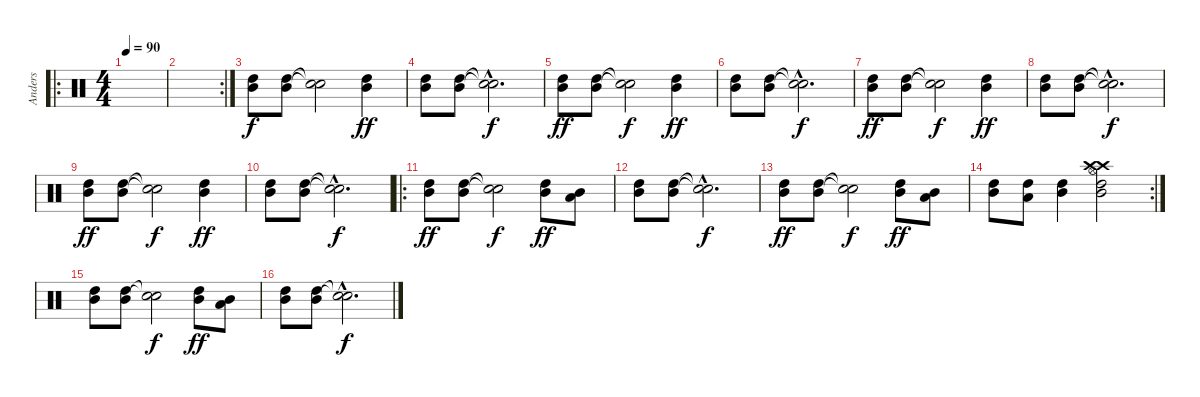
\track ("Anders" "Anders") {instrument percussion}
\staff {score}
\articulation defaults
\ro
\ts (4 4)
\tempo 90
\clef neutral
\ks c
|
\rc 2
|
("Mid Tom (hit)" "High Tom (hit)").8 ("Mid Tom (hit)" "High Tom (hit)").8 ("Snare (hit)"{t} "Snare (hit)"{t}).2{dy f} ("Mid Tom (hit)" "High Tom (hit)").4{dy ff} |
("Mid Tom (hit)" "High Tom (hit)").8 ("Mid Tom (hit)" "High Tom (hit)").8 ("Snare (hit)"{hac t} "Snare (hit)"{hac t}).2{d dy f} |
("Mid Tom (hit)" "High Tom (hit)").8{dy ff} ("Mid Tom (hit)" "High Tom (hit)").8 ("Snare (hit)"{t} "Snare (hit)"{t}).2{dy f} ("Mid Tom (hit)" "High Tom (hit)").4{dy ff} |
("Mid Tom (hit)" "High Tom (hit)").8 ("Mid Tom (hit)" "High Tom (hit)").8 ("Snare (hit)"{hac t} "Snare (hit)"{hac t}).2{d dy f} |
("Mid Tom (hit)" "High Tom (hit)").8{dy ff} ("Mid Tom (hit)" "High Tom (hit)").8 ("Snare (hit)"{t} "Snare (hit)"{t}).2{dy f} ("Mid Tom (hit)" "High Tom (hit)").4{dy ff} |
("Mid Tom (hit)" "High Tom (hit)").8 ("Mid Tom (hit)" "High Tom (hit)").8 ("Snare (hit)"{hac t} "Snare (hit)"{hac t}).2{d dy f} |
("Mid Tom (hit)" "High Tom (hit)").8{dy ff} ("Mid Tom (hit)" "High Tom (hit)").8 ("Snare (hit)"{t} "Snare (hit)"{t}).2{dy f} ("Mid Tom (hit)" "High Tom (hit)").4{dy ff} |
("Mid Tom (hit)" "High Tom (hit)").8 ("Mid Tom (hit)" "High Tom (hit)").8 ("Snare (hit)"{hac t} "Snare (hit)"{hac t}).2{d dy f} |
\ro
("Mid Tom (hit)" "High Tom (hit)").8{dy ff} ("Mid Tom (hit)" "High Tom (hit)").8 ("Snare (hit)"{t} "Snare (hit)"{t}).2{dy f} ("Mid Tom (hit)" "High Tom (hit)").8{dy ff} ("Mid Tom (hit)" "Low Tom (hit)").8 |
("Mid Tom (hit)" "High Tom (hit)").8 ("Mid Tom (hit)" "High Tom (hit)").8 ("Snare (hit)"{hac t} "Snare (hit)"{hac t}).2{d dy f} |
("Mid Tom (hit)" "High Tom (hit)").8{dy ff} ("Mid Tom (hit)" "High Tom (hit)").8 ("Snare (hit)"{t} "Snare (hit)"{t}).2{dy f} ("Mid Tom (hit)" "High Tom (hit)").8{dy ff} ("Mid Tom (hit)" "Low Tom (hit)").8 |
\rc 2
("High Tom (hit)" "Mid Tom (hit)").8 ("High Tom (hit)" "Low Tom (hit)").8 ("High Tom (hit)" "Mid Tom (hit)").4 ("Crash high (hit)" "Crash high (hit)" "High Tom (hit)" "Mid Tom (hit)" "Hi-Hat (open)").2 |
("Mid Tom (hit)" "High Tom (hit)").8 ("Mid Tom (hit)" "High Tom (hit)").8 ("Snare (hit)"{t} "Snare (hit)"{t}).2{dy f} ("Mid Tom (hit)" "High Tom (hit)").8{dy ff} ("Mid Tom (hit)" "Low Tom (hit)").8 |
("Mid Tom (hit)" "High Tom (hit)").8 ("Mid Tom (hit)" "High Tom (hit)").8 ("Snare (hit)"{hac t} "Snare (hit)"{hac t}).2{d dy f}
